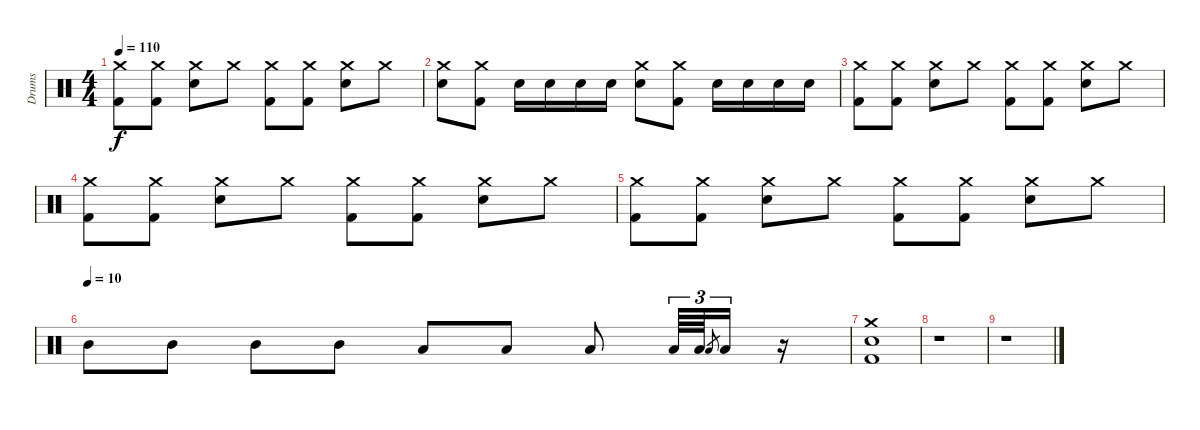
\track ("Drums" "Drums") {instrument percussion}
\staff {score}
\articulation defaults
\ts (4 4)
\tempo 110
\clef neutral
\ks c
("Crash medium (hit)" "Kick (hit) 2").8{dy f} ("Crash medium (hit)" "Kick (hit) 2").8 ("Crash medium (hit)" "Electric Snare (hit)").8 "Crash medium (hit)".8 ("Crash medium (hit)" "Kick (hit) 2").8 ("Crash medium (hit)" "Kick (hit) 2").8 ("Crash medium (hit)" "Electric Snare (hit)").8 "Crash medium (hit)".8 |
("Crash medium (hit)" "Electric Snare (hit)").8 ("Crash medium (hit)" "Kick (hit) 2").8 "Electric Snare (hit)".16 "Electric Snare (hit)".16 "Electric Snare (hit)".16 "Electric Snare (hit)".16 ("Crash medium (hit)" "Electric Snare (hit)").8 ("Crash medium (hit)" "Kick (hit) 2").8 "Electric Snare (hit)".16 "Electric Snare (hit)".16 "Electric Snare (hit)".16 "Electric Snare (hit)".16 |
("Crash medium (hit)" "Kick (hit) 2").8 ("Crash medium (hit)" "Kick (hit) 2").8 ("Crash medium (hit)" "Electric Snare (hit)").8 "Crash medium (hit)".8 ("Crash medium (hit)" "Kick (hit) 2").8 ("Crash medium (hit)" "Kick (hit) 2").8 ("Crash medium (hit)" "Electric Snare (hit)").8 "Crash medium (hit)".8 |
("Crash medium (hit)" "Kick (hit) 2").8 ("Crash medium (hit)" "Kick (hit) 2").8 ("Crash medium (hit)" "Electric Snare (hit)").8 "Crash medium (hit)".8 ("Crash medium (hit)" "Kick (hit) 2").8 ("Crash medium (hit)" "Kick (hit) 2").8 ("Crash medium (hit)" "Electric Snare (hit)").8 "Crash medium (hit)".8 |
("Crash medium (hit)" "Kick (hit) 2").8 ("Crash medium (hit)" "Kick (hit) 2").8 ("Crash medium (hit)" "Electric Snare (hit)").8 "Crash medium (hit)".8 ("Crash medium (hit)" "Kick (hit) 2").8 ("Crash medium (hit)" "Kick (hit) 2").8 ("Crash medium (hit)" "Electric Snare (hit)").8 "Crash medium (hit)".8 |
\tempo (10)
"Mid Tom (hit)".8 "Mid Tom (hit)".8 "Mid Tom (hit)".8 "Mid Tom (hit)".8 "Low Tom (hit)".8 "Low Tom (hit)".8 "Low Tom (hit)".8 "Low Floor Tom (hit)".64{tu (3 2)} "Low Floor Tom (hit)".64{tu (3 2)} "Low Floor Tom (hit)".8{gr} "Low Tom (hit)".16{tu (3 2)} r.16 |
("Crash medium (hit)" "Electric Snare (hit)" "Kick (hit) 2").1 |
r.1 |
r.1
